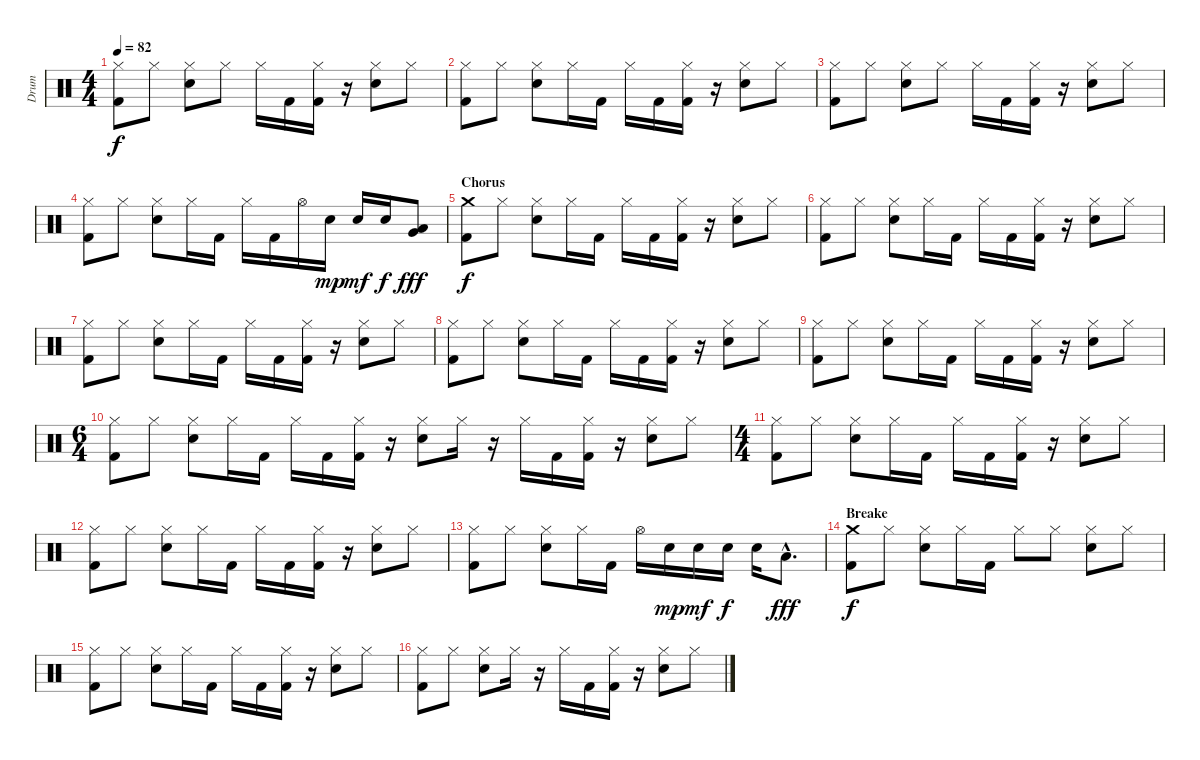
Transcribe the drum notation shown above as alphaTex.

\track ("Drum" "Drum") {instrument percussion}
\staff {score}
\articulation defaults
\ts (4 4)
\tempo 82
\clef neutral
\ks c
("Hi-Hat (closed)" "Kick (hit) 2").8{dy f} "Hi-Hat (closed)".8 ("Hi-Hat (closed)" "Electric Snare (hit)").8 "Hi-Hat (closed)".8 "Hi-Hat (closed)".16 "Kick (hit) 2".16 ("Hi-Hat (closed)" "Kick (hit) 2").16 r.16 ("Hi-Hat (closed)" "Electric Snare (hit)").8 "Hi-Hat (closed)".8 |
("Hi-Hat (closed)" "Kick (hit) 2").8 "Hi-Hat (closed)".8 ("Hi-Hat (closed)" "Electric Snare (hit)").8 "Hi-Hat (closed)".16 "Kick (hit) 2".16 "Hi-Hat (closed)".16 "Kick (hit) 2".16 ("Hi-Hat (closed)" "Kick (hit) 2").16 r.16 ("Hi-Hat (closed)" "Electric Snare (hit)").8 "Hi-Hat (closed)".8 |
("Hi-Hat (closed)" "Kick (hit) 2").8 "Hi-Hat (closed)".8 ("Hi-Hat (closed)" "Electric Snare (hit)").8 "Hi-Hat (closed)".8 "Hi-Hat (closed)".16 "Kick (hit) 2".16 ("Hi-Hat (closed)" "Kick (hit) 2").16 r.16 ("Hi-Hat (closed)" "Electric Snare (hit)").8 "Hi-Hat (closed)".8 |
("Hi-Hat (closed)" "Kick (hit) 2").8 "Hi-Hat (closed)".8 ("Hi-Hat (closed)" "Electric Snare (hit)").8 "Hi-Hat (closed)".16 "Kick (hit) 2".16 "Hi-Hat (closed)".16 "Kick (hit) 2".16 "Hi-Hat (open)".16 "Electric Snare (hit)".16{dy mp} "Electric Snare (hit)".16{dy mf} "Electric Snare (hit)".16{dy f} ("Low Tom (hit)" "Very Low Tom (hit)").8{dy fff} |
\section ("" "Chorus")
("Crash medium (hit)" "Kick (hit) 2").8{dy f} "Hi-Hat (closed)".8 ("Hi-Hat (closed)" "Electric Snare (hit)").8 "Hi-Hat (closed)".16 "Kick (hit) 2".16 "Hi-Hat (closed)".16 "Kick (hit) 2".16 ("Hi-Hat (closed)" "Kick (hit) 2").16 r.16 ("Hi-Hat (closed)" "Electric Snare (hit)").8 "Hi-Hat (closed)".8 |
("Hi-Hat (closed)" "Kick (hit) 2").8 "Hi-Hat (closed)".8 ("Hi-Hat (closed)" "Electric Snare (hit)").8 "Hi-Hat (closed)".16 "Kick (hit) 2".16 "Hi-Hat (closed)".16 "Kick (hit) 2".16 ("Hi-Hat (closed)" "Kick (hit) 2").16 r.16 ("Hi-Hat (closed)" "Electric Snare (hit)").8 "Hi-Hat (closed)".8 |
("Hi-Hat (closed)" "Kick (hit) 2").8 "Hi-Hat (closed)".8 ("Hi-Hat (closed)" "Electric Snare (hit)").8 "Hi-Hat (closed)".16 "Kick (hit) 2".16 "Hi-Hat (closed)".16 "Kick (hit) 2".16 ("Hi-Hat (closed)" "Kick (hit) 2").16 r.16 ("Hi-Hat (closed)" "Electric Snare (hit)").8 "Hi-Hat (closed)".8 |
("Hi-Hat (closed)" "Kick (hit) 2").8 "Hi-Hat (closed)".8 ("Hi-Hat (closed)" "Electric Snare (hit)").8 "Hi-Hat (closed)".16 "Kick (hit) 2".16 "Hi-Hat (closed)".16 "Kick (hit) 2".16 ("Hi-Hat (closed)" "Kick (hit) 2").16 r.16 ("Hi-Hat (closed)" "Electric Snare (hit)").8 "Hi-Hat (closed)".8 |
("Hi-Hat (closed)" "Kick (hit) 2").8 "Hi-Hat (closed)".8 ("Hi-Hat (closed)" "Electric Snare (hit)").8 "Hi-Hat (closed)".16 "Kick (hit) 2".16 "Hi-Hat (closed)".16 "Kick (hit) 2".16 ("Hi-Hat (closed)" "Kick (hit) 2").16 r.16 ("Hi-Hat (closed)" "Electric Snare (hit)").8 "Hi-Hat (closed)".8 |
\ts (6 4)
("Hi-Hat (closed)" "Kick (hit) 2").8 "Hi-Hat (closed)".8 ("Hi-Hat (closed)" "Electric Snare (hit)").8 "Hi-Hat (closed)".16 "Kick (hit) 2".16 "Hi-Hat (closed)".16 "Kick (hit) 2".16 ("Hi-Hat (closed)" "Kick (hit) 2").16 r.16 ("Hi-Hat (closed)" "Electric Snare (hit)").8 "Hi-Hat (closed)".16 r.16 "Hi-Hat (closed)".16 "Kick (hit) 2".16 ("Hi-Hat (closed)" "Kick (hit) 2").16 r.16 ("Hi-Hat (closed)" "Electric Snare (hit)").8 "Hi-Hat (closed)".8 |
\ts (4 4)
("Hi-Hat (closed)" "Kick (hit) 2").8 "Hi-Hat (closed)".8 ("Hi-Hat (closed)" "Electric Snare (hit)").8 "Hi-Hat (closed)".16 "Kick (hit) 2".16 "Hi-Hat (closed)".16 "Kick (hit) 2".16 ("Hi-Hat (closed)" "Kick (hit) 2").16 r.16 ("Hi-Hat (closed)" "Electric Snare (hit)").8 "Hi-Hat (closed)".8 |
("Hi-Hat (closed)" "Kick (hit) 2").8 "Hi-Hat (closed)".8 ("Hi-Hat (closed)" "Electric Snare (hit)").8 "Hi-Hat (closed)".16 "Kick (hit) 2".16 "Hi-Hat (closed)".16 "Kick (hit) 2".16 ("Hi-Hat (closed)" "Kick (hit) 2").16 r.16 ("Hi-Hat (closed)" "Electric Snare (hit)").8 "Hi-Hat (closed)".8 |
("Hi-Hat (closed)" "Kick (hit) 2").8 "Hi-Hat (closed)".8 ("Hi-Hat (closed)" "Electric Snare (hit)").8 "Hi-Hat (closed)".16 "Kick (hit) 2".16 "Hi-Hat (open)".16 "Electric Snare (hit)".16{dy mp} "Electric Snare (hit)".16{dy mf} "Electric Snare (hit)".16{dy f} "Electric Snare (hit)".16 "Low Tom (hit)"{hac}.8{d dy fff} |
\section ("" "Breake")
("Crash medium (hit)" "Kick (hit) 2").8{dy f} "Hi-Hat (closed)".8 ("Hi-Hat (closed)" "Electric Snare (hit)").8 "Hi-Hat (closed)".16 "Kick (hit) 2".16 "Hi-Hat (closed)".8 "Hi-Hat (closed)".8 ("Hi-Hat (closed)" "Electric Snare (hit)").8 "Hi-Hat (closed)".8 |
("Hi-Hat (closed)" "Kick (hit) 2").8 "Hi-Hat (closed)".8 ("Hi-Hat (closed)" "Electric Snare (hit)").8 "Hi-Hat (closed)".16 "Kick (hit) 2".16 "Hi-Hat (closed)".16 "Kick (hit) 2".16 ("Hi-Hat (closed)" "Kick (hit) 2").16 r.16 ("Hi-Hat (closed)" "Electric Snare (hit)").8 "Hi-Hat (closed)".8 |
("Hi-Hat (closed)" "Kick (hit) 2").8 "Hi-Hat (closed)".8 ("Hi-Hat (closed)" "Electric Snare (hit)").8 "Hi-Hat (closed)".16 r.16 "Hi-Hat (closed)".16 "Kick (hit) 2".16 ("Hi-Hat (closed)" "Kick (hit) 2").16 r.16 ("Hi-Hat (closed)" "Electric Snare (hit)").8 "Hi-Hat (closed)".8
